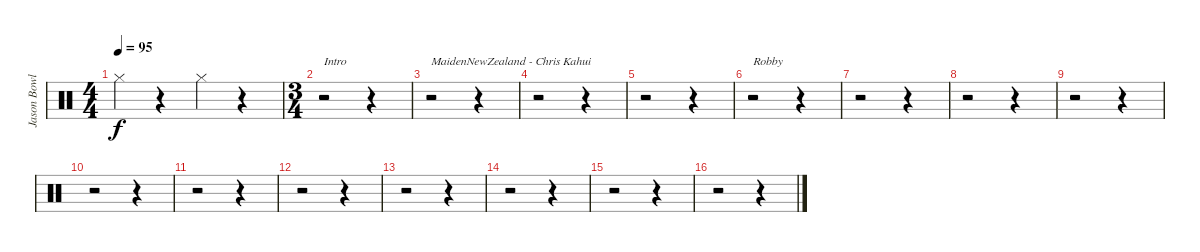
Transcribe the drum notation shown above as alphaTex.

\track ("Jason Bowld" "Jason Bowl") {instrument percussion}
\staff {score}
\articulation defaults
\ts (4 4)
\tempo 95
\clef neutral
\ks c "Hi-Hat (closed)".4{dy f}
r.4 "Hi-Hat (closed)".4 r.4 |
\ts (3 4)
r.2{txt "Intro"} r.4 |
r.2{txt "MaidenNewZealand - Chris Kahui"} r.4 |
r.2 r.4 |
r.2 r.4 |
r.2{txt "Robby"} r.4 |
r.2 r.4 |
r.2 r.4 |
r.2 r.4 |
r.2 r.4 |
r.2 r.4 |
r.2 r.4 |
r.2 r.4 |
r.2 r.4 |
r.2 r.4 |
r.2 r.4
